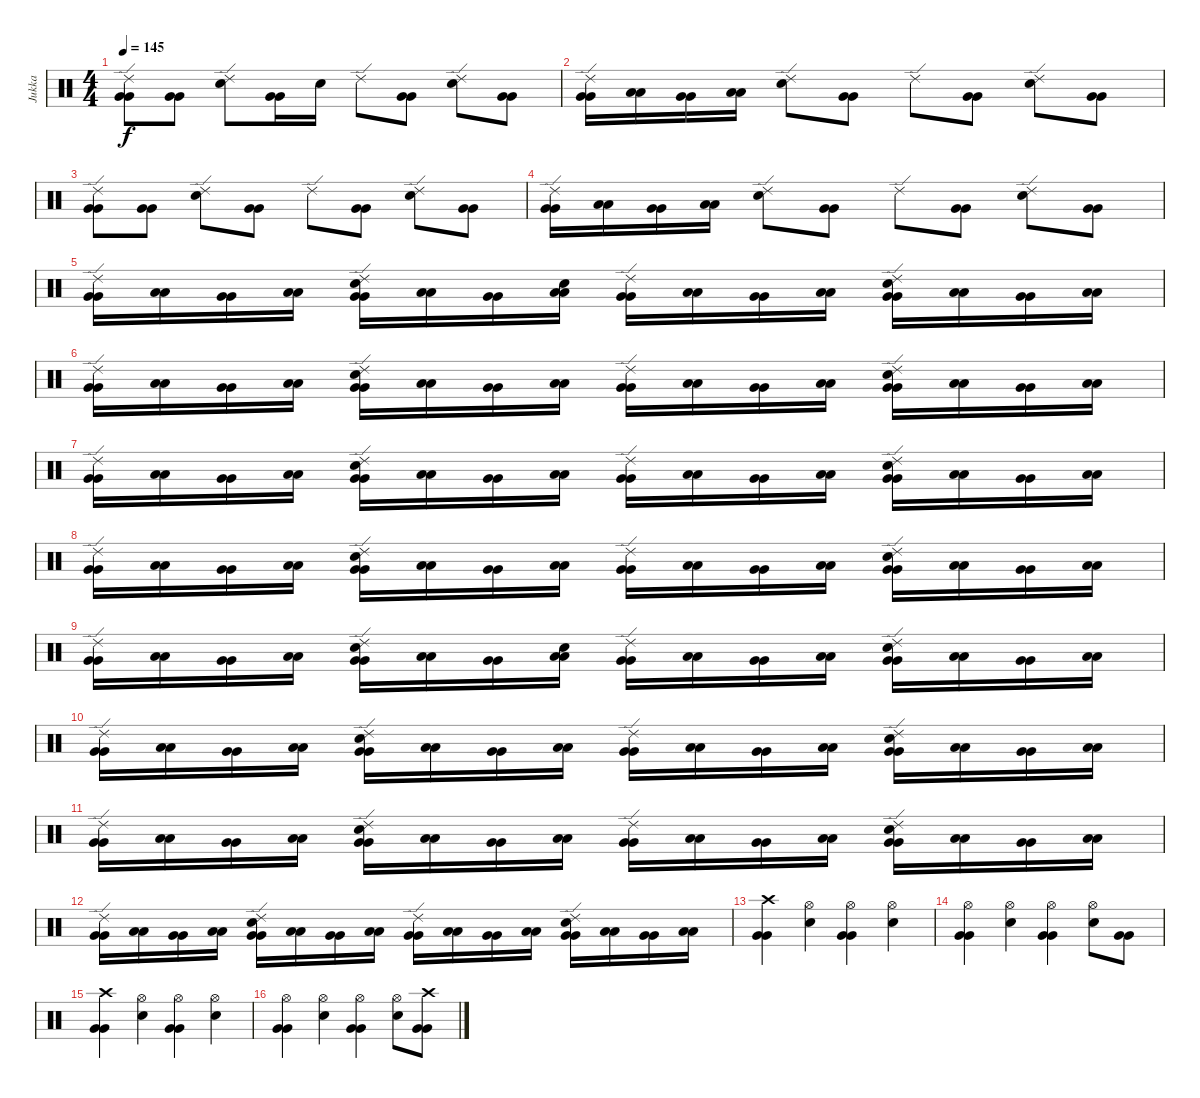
\track ("Jukka" "Jukka") {instrument percussion}
\staff {score}
\articulation defaults
\ts (4 4)
\tempo 145
\clef neutral
\ks c
("Ride (edge) 2" "Very Low Tom (hit)" "Very Low Tom (hit)").8{dy f} ("Very Low Tom (hit)" "Very Low Tom (hit)").8 ("Ride (edge) 2" "Electric Snare (hit)").8 ("Very Low Tom (hit)" "Very Low Tom (hit)").16 "Electric Snare (hit)".16 "Ride (edge) 2".8 ("Very Low Tom (hit)" "Very Low Tom (hit)").8 ("Ride (edge) 2" "Electric Snare (hit)").8 ("Very Low Tom (hit)" "Very Low Tom (hit)").8 |
("Ride (edge) 2" "Very Low Tom (hit)" "Very Low Tom (hit)").16 ("Low Floor Tom (hit)" "Low Floor Tom (hit)").16 ("Very Low Tom (hit)" "Very Low Tom (hit)").16 ("Low Floor Tom (hit)" "Low Floor Tom (hit)").16 ("Ride (edge) 2" "Electric Snare (hit)").8 ("Very Low Tom (hit)" "Very Low Tom (hit)").8 "Ride (edge) 2".8 ("Very Low Tom (hit)" "Very Low Tom (hit)").8 ("Ride (edge) 2" "Electric Snare (hit)").8 ("Very Low Tom (hit)" "Very Low Tom (hit)").8 |
("Ride (edge) 2" "Very Low Tom (hit)" "Very Low Tom (hit)").8 ("Very Low Tom (hit)" "Very Low Tom (hit)").8 ("Ride (edge) 2" "Electric Snare (hit)").8 ("Very Low Tom (hit)" "Very Low Tom (hit)").8 "Ride (edge) 2".8 ("Very Low Tom (hit)" "Very Low Tom (hit)").8 ("Ride (edge) 2" "Electric Snare (hit)").8 ("Very Low Tom (hit)" "Very Low Tom (hit)").8 |
("Ride (edge) 2" "Very Low Tom (hit)" "Very Low Tom (hit)").16 ("Low Floor Tom (hit)" "Low Floor Tom (hit)").16 ("Very Low Tom (hit)" "Very Low Tom (hit)").16 ("Low Floor Tom (hit)" "Low Floor Tom (hit)").16 ("Ride (edge) 2" "Electric Snare (hit)").8 ("Very Low Tom (hit)" "Very Low Tom (hit)").8 "Ride (edge) 2".8 ("Very Low Tom (hit)" "Very Low Tom (hit)").8 ("Ride (edge) 2" "Electric Snare (hit)").8 ("Very Low Tom (hit)" "Very Low Tom (hit)").8 |
("Ride (edge) 2" "Very Low Tom (hit)" "Very Low Tom (hit)").16 ("Low Floor Tom (hit)" "Low Floor Tom (hit)").16 ("Very Low Tom (hit)" "Very Low Tom (hit)").16 ("Low Floor Tom (hit)" "Low Floor Tom (hit)").16 ("Ride (edge) 2" "Electric Snare (hit)" "Very Low Tom (hit)" "Very Low Tom (hit)").16 ("Low Floor Tom (hit)" "Low Floor Tom (hit)").16 ("Very Low Tom (hit)" "Very Low Tom (hit)").16 ("Electric Snare (hit)" "Low Floor Tom (hit)" "Low Floor Tom (hit)").16 ("Ride (edge) 2" "Very Low Tom (hit)" "Very Low Tom (hit)").16 ("Low Floor Tom (hit)" "Low Floor Tom (hit)").16 ("Very Low Tom (hit)" "Very Low Tom (hit)").16 ("Low Floor Tom (hit)" "Low Floor Tom (hit)").16 ("Ride (edge) 2" "Electric Snare (hit)" "Very Low Tom (hit)" "Very Low Tom (hit)").16 ("Low Floor Tom (hit)" "Low Floor Tom (hit)").16 ("Very Low Tom (hit)" "Very Low Tom (hit)").16 ("Low Floor Tom (hit)" "Low Floor Tom (hit)").16 |
("Ride (edge) 2" "Very Low Tom (hit)" "Very Low Tom (hit)").16 ("Low Floor Tom (hit)" "Low Floor Tom (hit)").16 ("Very Low Tom (hit)" "Very Low Tom (hit)").16 ("Low Floor Tom (hit)" "Low Floor Tom (hit)").16 ("Ride (edge) 2" "Electric Snare (hit)" "Very Low Tom (hit)" "Very Low Tom (hit)").16 ("Low Floor Tom (hit)" "Low Floor Tom (hit)").16 ("Very Low Tom (hit)" "Very Low Tom (hit)").16 ("Low Floor Tom (hit)" "Low Floor Tom (hit)").16 ("Ride (edge) 2" "Very Low Tom (hit)" "Very Low Tom (hit)").16 ("Low Floor Tom (hit)" "Low Floor Tom (hit)").16 ("Very Low Tom (hit)" "Very Low Tom (hit)").16 ("Low Floor Tom (hit)" "Low Floor Tom (hit)").16 ("Ride (edge) 2" "Electric Snare (hit)" "Very Low Tom (hit)" "Very Low Tom (hit)").16 ("Low Floor Tom (hit)" "Low Floor Tom (hit)").16 ("Very Low Tom (hit)" "Very Low Tom (hit)").16 ("Low Floor Tom (hit)" "Low Floor Tom (hit)").16 |
("Ride (edge) 2" "Very Low Tom (hit)" "Very Low Tom (hit)").16 ("Low Floor Tom (hit)" "Low Floor Tom (hit)").16 ("Very Low Tom (hit)" "Very Low Tom (hit)").16 ("Low Floor Tom (hit)" "Low Floor Tom (hit)").16 ("Ride (edge) 2" "Electric Snare (hit)" "Very Low Tom (hit)" "Very Low Tom (hit)").16 ("Low Floor Tom (hit)" "Low Floor Tom (hit)").16 ("Very Low Tom (hit)" "Very Low Tom (hit)").16 ("Low Floor Tom (hit)" "Low Floor Tom (hit)").16 ("Ride (edge) 2" "Very Low Tom (hit)" "Very Low Tom (hit)").16 ("Low Floor Tom (hit)" "Low Floor Tom (hit)").16 ("Very Low Tom (hit)" "Very Low Tom (hit)").16 ("Low Floor Tom (hit)" "Low Floor Tom (hit)").16 ("Ride (edge) 2" "Electric Snare (hit)" "Very Low Tom (hit)" "Very Low Tom (hit)").16 ("Low Floor Tom (hit)" "Low Floor Tom (hit)").16 ("Very Low Tom (hit)" "Very Low Tom (hit)").16 ("Low Floor Tom (hit)" "Low Floor Tom (hit)").16 |
("Ride (edge) 2" "Very Low Tom (hit)" "Very Low Tom (hit)").16 ("Low Floor Tom (hit)" "Low Floor Tom (hit)").16 ("Very Low Tom (hit)" "Very Low Tom (hit)").16 ("Low Floor Tom (hit)" "Low Floor Tom (hit)").16 ("Ride (edge) 2" "Electric Snare (hit)" "Very Low Tom (hit)" "Very Low Tom (hit)").16 ("Low Floor Tom (hit)" "Low Floor Tom (hit)").16 ("Very Low Tom (hit)" "Very Low Tom (hit)").16 ("Low Floor Tom (hit)" "Low Floor Tom (hit)").16 ("Ride (edge) 2" "Very Low Tom (hit)" "Very Low Tom (hit)").16 ("Low Floor Tom (hit)" "Low Floor Tom (hit)").16 ("Very Low Tom (hit)" "Very Low Tom (hit)").16 ("Low Floor Tom (hit)" "Low Floor Tom (hit)").16 ("Ride (edge) 2" "Electric Snare (hit)" "Very Low Tom (hit)" "Very Low Tom (hit)").16 ("Low Floor Tom (hit)" "Low Floor Tom (hit)").16 ("Very Low Tom (hit)" "Very Low Tom (hit)").16 ("Low Floor Tom (hit)" "Low Floor Tom (hit)").16 |
("Ride (edge) 2" "Very Low Tom (hit)" "Very Low Tom (hit)").16 ("Low Floor Tom (hit)" "Low Floor Tom (hit)").16 ("Very Low Tom (hit)" "Very Low Tom (hit)").16 ("Low Floor Tom (hit)" "Low Floor Tom (hit)").16 ("Ride (edge) 2" "Electric Snare (hit)" "Very Low Tom (hit)" "Very Low Tom (hit)").16 ("Low Floor Tom (hit)" "Low Floor Tom (hit)").16 ("Very Low Tom (hit)" "Very Low Tom (hit)").16 ("Electric Snare (hit)" "Low Floor Tom (hit)" "Low Floor Tom (hit)").16 ("Ride (edge) 2" "Very Low Tom (hit)" "Very Low Tom (hit)").16 ("Low Floor Tom (hit)" "Low Floor Tom (hit)").16 ("Very Low Tom (hit)" "Very Low Tom (hit)").16 ("Low Floor Tom (hit)" "Low Floor Tom (hit)").16 ("Ride (edge) 2" "Electric Snare (hit)" "Very Low Tom (hit)" "Very Low Tom (hit)").16 ("Low Floor Tom (hit)" "Low Floor Tom (hit)").16 ("Very Low Tom (hit)" "Very Low Tom (hit)").16 ("Low Floor Tom (hit)" "Low Floor Tom (hit)").16 |
("Ride (edge) 2" "Very Low Tom (hit)" "Very Low Tom (hit)").16 ("Low Floor Tom (hit)" "Low Floor Tom (hit)").16 ("Very Low Tom (hit)" "Very Low Tom (hit)").16 ("Low Floor Tom (hit)" "Low Floor Tom (hit)").16 ("Ride (edge) 2" "Electric Snare (hit)" "Very Low Tom (hit)" "Very Low Tom (hit)").16 ("Low Floor Tom (hit)" "Low Floor Tom (hit)").16 ("Very Low Tom (hit)" "Very Low Tom (hit)").16 ("Low Floor Tom (hit)" "Low Floor Tom (hit)").16 ("Ride (edge) 2" "Very Low Tom (hit)" "Very Low Tom (hit)").16 ("Low Floor Tom (hit)" "Low Floor Tom (hit)").16 ("Very Low Tom (hit)" "Very Low Tom (hit)").16 ("Low Floor Tom (hit)" "Low Floor Tom (hit)").16 ("Ride (edge) 2" "Electric Snare (hit)" "Very Low Tom (hit)" "Very Low Tom (hit)").16 ("Low Floor Tom (hit)" "Low Floor Tom (hit)").16 ("Very Low Tom (hit)" "Very Low Tom (hit)").16 ("Low Floor Tom (hit)" "Low Floor Tom (hit)").16 |
("Ride (edge) 2" "Very Low Tom (hit)" "Very Low Tom (hit)").16 ("Low Floor Tom (hit)" "Low Floor Tom (hit)").16 ("Very Low Tom (hit)" "Very Low Tom (hit)").16 ("Low Floor Tom (hit)" "Low Floor Tom (hit)").16 ("Ride (edge) 2" "Electric Snare (hit)" "Very Low Tom (hit)" "Very Low Tom (hit)").16 ("Low Floor Tom (hit)" "Low Floor Tom (hit)").16 ("Very Low Tom (hit)" "Very Low Tom (hit)").16 ("Low Floor Tom (hit)" "Low Floor Tom (hit)").16 ("Ride (edge) 2" "Very Low Tom (hit)" "Very Low Tom (hit)").16 ("Low Floor Tom (hit)" "Low Floor Tom (hit)").16 ("Very Low Tom (hit)" "Very Low Tom (hit)").16 ("Low Floor Tom (hit)" "Low Floor Tom (hit)").16 ("Ride (edge) 2" "Electric Snare (hit)" "Very Low Tom (hit)" "Very Low Tom (hit)").16 ("Low Floor Tom (hit)" "Low Floor Tom (hit)").16 ("Very Low Tom (hit)" "Very Low Tom (hit)").16 ("Low Floor Tom (hit)" "Low Floor Tom (hit)").16 |
("Ride (edge) 2" "Very Low Tom (hit)" "Very Low Tom (hit)").16 ("Low Floor Tom (hit)" "Low Floor Tom (hit)").16 ("Very Low Tom (hit)" "Very Low Tom (hit)").16 ("Low Floor Tom (hit)" "Low Floor Tom (hit)").16 ("Ride (edge) 2" "Electric Snare (hit)" "Very Low Tom (hit)" "Very Low Tom (hit)").16 ("Low Floor Tom (hit)" "Low Floor Tom (hit)").16 ("Very Low Tom (hit)" "Very Low Tom (hit)").16 ("Low Floor Tom (hit)" "Low Floor Tom (hit)").16 ("Ride (edge) 2" "Very Low Tom (hit)" "Very Low Tom (hit)").16 ("Low Floor Tom (hit)" "Low Floor Tom (hit)").16 ("Very Low Tom (hit)" "Very Low Tom (hit)").16 ("Low Floor Tom (hit)" "Low Floor Tom (hit)").16 ("Ride (edge) 2" "Electric Snare (hit)" "Very Low Tom (hit)" "Very Low Tom (hit)").16 ("Low Floor Tom (hit)" "Low Floor Tom (hit)").16 ("Very Low Tom (hit)" "Very Low Tom (hit)").16 ("Low Floor Tom (hit)" "Low Floor Tom (hit)").16 |
("Crash high (hit)" "Very Low Tom (hit)" "Very Low Tom (hit)").4 ("Hi-Hat (open)" "Electric Snare (hit)").4 ("Hi-Hat (open)" "Very Low Tom (hit)" "Very Low Tom (hit)").4 ("Hi-Hat (open)" "Electric Snare (hit)").4 |
("Hi-Hat (open)" "Very Low Tom (hit)" "Very Low Tom (hit)").4 ("Hi-Hat (open)" "Electric Snare (hit)").4 ("Hi-Hat (open)" "Very Low Tom (hit)" "Very Low Tom (hit)").4 ("Hi-Hat (open)" "Electric Snare (hit)").8 ("Very Low Tom (hit)" "Very Low Tom (hit)").8 |
("Crash high (hit)" "Very Low Tom (hit)" "Very Low Tom (hit)").4 ("Hi-Hat (open)" "Electric Snare (hit)").4 ("Hi-Hat (open)" "Very Low Tom (hit)" "Very Low Tom (hit)").4 ("Hi-Hat (open)" "Electric Snare (hit)").4 |
("Hi-Hat (open)" "Very Low Tom (hit)" "Very Low Tom (hit)").4 ("Hi-Hat (open)" "Electric Snare (hit)").4 ("Hi-Hat (open)" "Very Low Tom (hit)" "Very Low Tom (hit)").4 ("Hi-Hat (open)" "Electric Snare (hit)").8 ("Crash high (hit)" "Very Low Tom (hit)" "Very Low Tom (hit)").8
